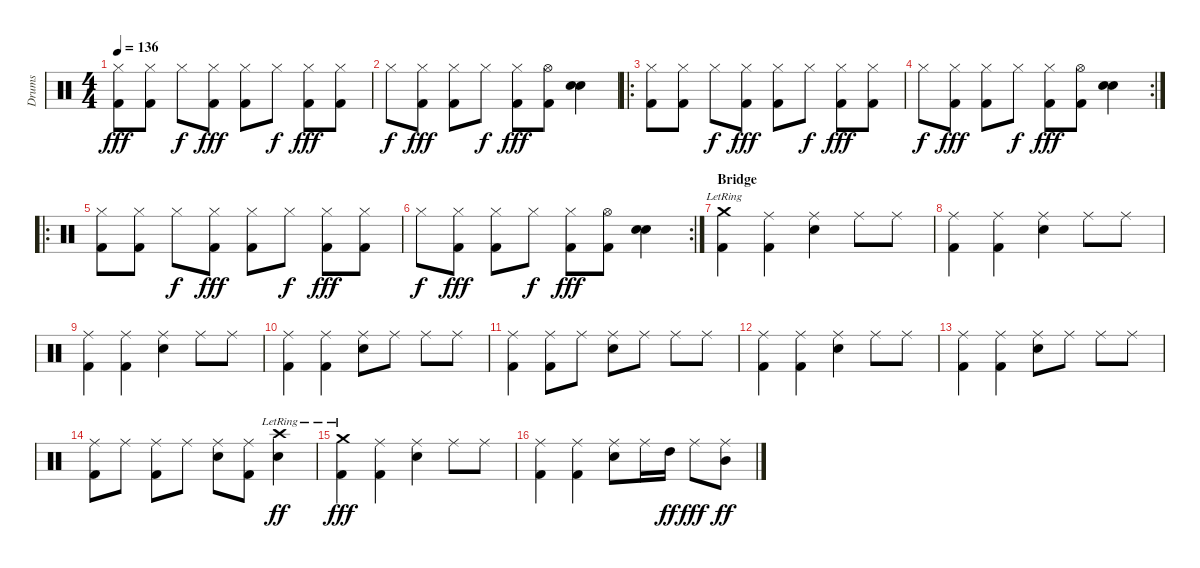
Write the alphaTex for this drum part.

\track ("Drums" "Drums") {instrument percussion}
\staff {score}
\articulation defaults
\ts (4 4)
\tempo 136
\clef neutral
\ks c
("Hi-Hat (closed)" "Kick (hit) 2").8{txt " " dy fff} ("Hi-Hat (closed)" "Kick (hit) 2").8 "Hi-Hat (closed)".8{dy f} ("Hi-Hat (closed)" "Kick (hit) 2").8{dy fff} ("Hi-Hat (closed)" "Kick (hit) 2").8 "Hi-Hat (closed)".8{dy f} ("Hi-Hat (closed)" "Kick (hit) 2").8{dy fff} ("Hi-Hat (closed)" "Kick (hit) 2").8 |
"Hi-Hat (closed)".8{dy f} ("Hi-Hat (closed)" "Kick (hit) 2").8{dy fff} ("Hi-Hat (closed)" "Kick (hit) 2").8 "Hi-Hat (closed)".8{dy f} ("Hi-Hat (closed)" "Kick (hit) 2").8{dy fff} ("Hi-Hat (open)" "Kick (hit) 2").8 ("Snare (hit) 2" "Snare (hit) 2").4{bd 120} |
\ro
("Hi-Hat (closed)" "Kick (hit) 2").8{txt " "} ("Hi-Hat (closed)" "Kick (hit) 2").8 "Hi-Hat (closed)".8{dy f} ("Hi-Hat (closed)" "Kick (hit) 2").8{dy fff} ("Hi-Hat (closed)" "Kick (hit) 2").8 "Hi-Hat (closed)".8{dy f} ("Hi-Hat (closed)" "Kick (hit) 2").8{dy fff} ("Hi-Hat (closed)" "Kick (hit) 2").8 |
\rc 2 "Hi-Hat (closed)".8{dy f}
("Hi-Hat (closed)" "Kick (hit) 2").8{dy fff} ("Hi-Hat (closed)" "Kick (hit) 2").8 "Hi-Hat (closed)".8{dy f} ("Hi-Hat (closed)" "Kick (hit) 2").8{dy fff} ("Hi-Hat (open)" "Kick (hit) 2").8 ("Snare (hit) 2" "Snare (hit) 2").4{bd 120} |
\ro
("Hi-Hat (closed)" "Kick (hit) 2").8{txt " "} ("Hi-Hat (closed)" "Kick (hit) 2").8 "Hi-Hat (closed)".8{dy f} ("Hi-Hat (closed)" "Kick (hit) 2").8{dy fff} ("Hi-Hat (closed)" "Kick (hit) 2").8 "Hi-Hat (closed)".8{dy f} ("Hi-Hat (closed)" "Kick (hit) 2").8{dy fff} ("Hi-Hat (closed)" "Kick (hit) 2").8 |
\rc 2 "Hi-Hat (closed)".8{dy f}
("Hi-Hat (closed)" "Kick (hit) 2").8{dy fff} ("Hi-Hat (closed)" "Kick (hit) 2").8 "Hi-Hat (closed)".8{dy f} ("Hi-Hat (closed)" "Kick (hit) 2").8{dy fff} ("Hi-Hat (open)" "Kick (hit) 2").8 ("Snare (hit) 2" "Snare (hit) 2").4{bd 120} |
\section ("" "Bridge")
("Crash medium (hit)"{lr} "Kick (hit) 2").4{txt " "} ("Ride (middle)" "Kick (hit) 2").4 ("Ride (middle)" "Snare (hit) 2").4 "Ride (middle)".8 "Ride (middle)".8 |
("Ride (middle)" "Kick (hit) 2").4{txt " "} ("Ride (middle)" "Kick (hit) 2").4 ("Ride (middle)" "Snare (hit) 2").4 "Ride (middle)".8 "Ride (middle)".8 |
("Ride (middle)" "Kick (hit) 2").4{txt " "} ("Ride (middle)" "Kick (hit) 2").4 ("Ride (middle)" "Snare (hit) 2").4 "Ride (middle)".8 "Ride (middle)".8 |
("Ride (middle)" "Kick (hit) 2").4{txt " "} ("Ride (middle)" "Kick (hit) 2").4 ("Ride (middle)" "Snare (hit) 2").8 "Ride (middle)".8 "Ride (middle)".8 "Ride (middle)".8 |
("Ride (middle)" "Kick (hit) 2").4 ("Ride (middle)" "Kick (hit) 2").8 "Ride (middle)".8 ("Ride (middle)" "Snare (hit) 2").8 "Ride (middle)".8{txt " "} "Ride (middle)".8 "Ride (middle)".8 |
("Ride (middle)" "Kick (hit) 2").4{txt " "} ("Ride (middle)" "Kick (hit) 2").4 ("Ride (middle)" "Snare (hit) 2").4 "Ride (middle)".8 "Ride (middle)".8 |
("Ride (middle)" "Kick (hit) 2").4{txt " "} ("Ride (middle)" "Kick (hit) 2").4 ("Ride (middle)" "Snare (hit) 2").8 "Ride (middle)".8 "Ride (middle)".8 "Ride (middle)".8 |
("Ride (middle)" "Kick (hit) 2").8 "Ride (middle)".8 ("Ride (middle)" "Kick (hit) 2").8 "Ride (middle)".8 ("Ride (middle)" "Snare (hit) 2").8 ("Ride (middle)" "Kick (hit) 2").8{txt " "} ("Crash high (hit)"{lr} "Snare (hit) 2").4{dy ff} |
("Crash medium (hit)"{lr} "Kick (hit) 2").4{txt " " dy fff} ("Ride (middle)" "Kick (hit) 2").4 ("Ride (middle)" "Snare (hit) 2").4 "Ride (middle)".8 "Ride (middle)".8 |
("Ride (middle)" "Kick (hit) 2").4{txt " "} ("Ride (middle)" "Kick (hit) 2").4 ("Ride (middle)" "Snare (hit) 2").8 "Ride (middle)".16 "High Tom (hit)".16{dy ff} "Ride (middle)".8{dy fff} ("Ride (middle)" "Mid Tom (hit)").8{dy ff}
